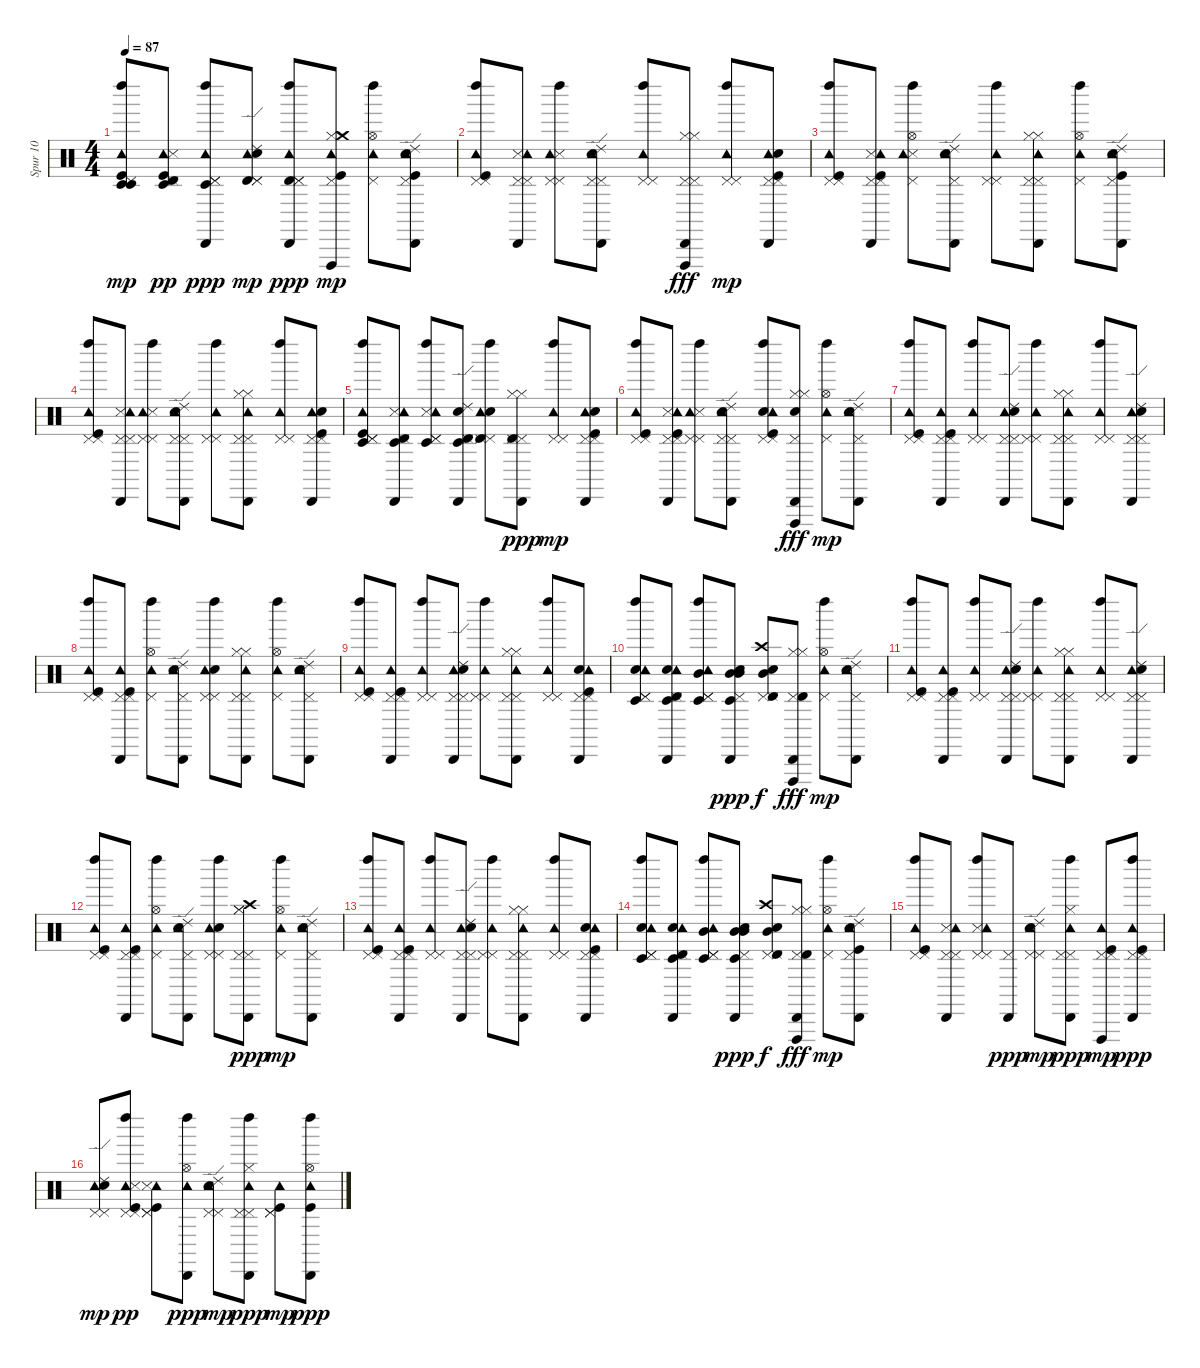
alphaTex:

\track ("Spur 10" "Spur 10") {instrument percussion}
\staff {score}
\articulation defaults
\ts (4 4)
\tempo 87
\clef neutral
\ks c
("Timbale low (hit)" "Kick (hit)" "Tambourine (hit)" "Left Maraca (hit)" "Pedal Hi-Hat (hit)" "Timbale low (hit)").8{dy mp} ("Timbale high (hit)" "Tambourine (hit)" "Pedal Hi-Hat (hit)" "Kick (hit)" "Timbale low (hit)" "Snare (side stick) 3").8{dy pp} ("Pedal Hi-Hat (hit)" "Left Maraca (hit)" "Tambourine (hit)" "Timbale low (hit)" "Pedal Hi-Hat (hit)" "Cabasa (hit)").8{dy ppp} ("Timbale high (hit)" "Ride (edge) 2" "Tambourine (hit)" "Pedal Hi-Hat (hit)" "Electric Snare (hit)" "Pedal Hi-Hat (hit)").8{dy mp} ("Timbale high (hit)" "Pedal Hi-Hat (hit)" "Left Maraca (hit)" "Tambourine (hit)" "Pedal Hi-Hat (hit)" "Cabasa (hit)").8{dy ppp} ("Hi-Hat (closed)" "Vibraslap (hit)" "Pedal Hi-Hat (hit)" "Tambourine (hit)" "Kick (hit)" "Crash medium (hit)").8{dy mp} ("Pedal Hi-Hat (hit)" "Left Maraca (hit)" "Hi-Hat (open)" "Tambourine (hit)").8 ("Kick (hit)" "Cabasa (hit)" "Ride (edge) 2" "Pedal Hi-Hat (hit)" "Tambourine (hit)" "Electric Snare (hit)").8 |
("Pedal Hi-Hat (hit)" "Pedal Hi-Hat (hit)" "Kick (hit)" "Tambourine (hit)" "Left Maraca (hit)").8 ("Cabasa (hit)" "Pedal Hi-Hat (hit)" "Snare (side stick) 3" "Pedal Hi-Hat (hit)" "Tambourine (hit)").8 ("Snare (side stick) 3" "Pedal Hi-Hat (hit)" "Left Maraca (hit)" "Pedal Hi-Hat (hit)" "Tambourine (hit)").8 ("Cabasa (hit)" "Pedal Hi-Hat (hit)" "Ride (edge) 2" "Pedal Hi-Hat (hit)" "Tambourine (hit)" "Electric Snare (hit)").8 ("Pedal Hi-Hat (hit)" "Left Maraca (hit)" "Pedal Hi-Hat (hit)" "Tambourine (hit)").8 ("Cabasa (hit)" "Pedal Hi-Hat (hit)" "Hi-Hat (closed)" "Hi-Hat (closed)" "Vibraslap (hit)" "Pedal Hi-Hat (hit)").8{dy fff} ("Pedal Hi-Hat (hit)" "Left Maraca (hit)" "Pedal Hi-Hat (hit)" "Tambourine (hit)").8{dy mp} ("Kick (hit)" "Cabasa (hit)" "Pedal Hi-Hat (hit)" "Pedal Hi-Hat (hit)" "Tambourine (hit)" "Electric Snare (hit)").8 |
("Pedal Hi-Hat (hit)" "Kick (hit)" "Tambourine (hit)" "Left Maraca (hit)" "Pedal Hi-Hat (hit)").8 ("Pedal Hi-Hat (hit)" "Snare (side stick) 3" "Cabasa (hit)" "Tambourine (hit)" "Pedal Hi-Hat (hit)" "Kick (hit)").8 ("Snare (side stick) 3" "Pedal Hi-Hat (hit)" "Left Maraca (hit)" "Tambourine (hit)" "Hi-Hat (open)").8 ("Cabasa (hit)" "Ride (edge) 2" "Tambourine (hit)" "Pedal Hi-Hat (hit)" "Electric Snare (hit)").8 ("Pedal Hi-Hat (hit)" "Pedal Hi-Hat (hit)" "Left Maraca (hit)" "Tambourine (hit)").8 ("Pedal Hi-Hat (hit)" "Cabasa (hit)" "Hi-Hat (closed)" "Hi-Hat (closed)" "Pedal Hi-Hat (hit)" "Tambourine (hit)").8 ("Pedal Hi-Hat (hit)" "Left Maraca (hit)" "Hi-Hat (open)" "Tambourine (hit)").8 ("Kick (hit)" "Cabasa (hit)" "Ride (edge) 2" "Pedal Hi-Hat (hit)" "Tambourine (hit)" "Electric Snare (hit)").8 |
("Pedal Hi-Hat (hit)" "Pedal Hi-Hat (hit)" "Kick (hit)" "Tambourine (hit)" "Left Maraca (hit)").8 ("Cabasa (hit)" "Pedal Hi-Hat (hit)" "Snare (side stick) 3" "Pedal Hi-Hat (hit)" "Tambourine (hit)").8 ("Snare (side stick) 3" "Pedal Hi-Hat (hit)" "Left Maraca (hit)" "Pedal Hi-Hat (hit)" "Tambourine (hit)").8 ("Cabasa (hit)" "Pedal Hi-Hat (hit)" "Ride (edge) 2" "Pedal Hi-Hat (hit)" "Tambourine (hit)" "Electric Snare (hit)").8 ("Pedal Hi-Hat (hit)" "Left Maraca (hit)" "Pedal Hi-Hat (hit)" "Tambourine (hit)").8 ("Cabasa (hit)" "Pedal Hi-Hat (hit)" "Hi-Hat (closed)" "Hi-Hat (closed)" "Pedal Hi-Hat (hit)" "Tambourine (hit)").8 ("Pedal Hi-Hat (hit)" "Left Maraca (hit)" "Pedal Hi-Hat (hit)" "Tambourine (hit)").8 ("Kick (hit)" "Cabasa (hit)" "Pedal Hi-Hat (hit)" "Pedal Hi-Hat (hit)" "Tambourine (hit)" "Electric Snare (hit)").8 |
("Pedal Hi-Hat (hit)" "Timbale low (hit)" "Kick (hit)" "Tambourine (hit)" "Left Maraca (hit)" "Pedal Hi-Hat (hit)").8 ("Timbale low (hit)" "Pedal Hi-Hat (hit)" "Snare (side stick) 3" "Cabasa (hit)" "Timbale high (hit)" "Tambourine (hit)").8 ("Timbale low (hit)" "Snare (side stick) 3" "Pedal Hi-Hat (hit)" "Pedal Hi-Hat (hit)" "Left Maraca (hit)" "Tambourine (hit)").8 ("Electric Snare (hit)" "Timbale low (hit)" "Pedal Hi-Hat (hit)" "Cabasa (hit)" "Timbale high (hit)" "Ride (edge) 2").8 ("Pedal Hi-Hat (hit)" "Electric Snare (hit)" "Timbale high (hit)" "Pedal Hi-Hat (hit)" "Left Maraca (hit)" "Tambourine (hit)").8 ("Pedal Hi-Hat (hit)" "Cabasa (hit)" "Timbale high (hit)" "Hi-Hat (closed)" "Hi-Hat (closed)" "Pedal Hi-Hat (hit)").8{dy ppp} ("Pedal Hi-Hat (hit)" "Left Maraca (hit)" "Pedal Hi-Hat (hit)" "Tambourine (hit)").8{dy mp} ("Kick (hit)" "Cabasa (hit)" "Pedal Hi-Hat (hit)" "Pedal Hi-Hat (hit)" "Tambourine (hit)" "Electric Snare (hit)").8 |
("Pedal Hi-Hat (hit)" "Kick (hit)" "Tambourine (hit)" "Left Maraca (hit)" "Pedal Hi-Hat (hit)").8 ("Pedal Hi-Hat (hit)" "Snare (side stick) 3" "Cabasa (hit)" "Tambourine (hit)" "Pedal Hi-Hat (hit)" "Kick (hit)").8 ("Snare (side stick) 3" "Pedal Hi-Hat (hit)" "Pedal Hi-Hat (hit)" "Left Maraca (hit)" "Tambourine (hit)").8 ("Electric Snare (hit)" "Pedal Hi-Hat (hit)" "Cabasa (hit)" "Ride (edge) 2" "Tambourine (hit)" "Pedal Hi-Hat (hit)").8 ("Pedal Hi-Hat (hit)" "Kick (hit)" "Electric Snare (hit)" "Pedal Hi-Hat (hit)" "Left Maraca (hit)" "Tambourine (hit)").8 ("Pedal Hi-Hat (hit)" "Cabasa (hit)" "Electric Snare (hit)" "Hi-Hat (closed)" "Hi-Hat (closed)" "Vibraslap (hit)").8{dy fff} ("Pedal Hi-Hat (hit)" "Left Maraca (hit)" "Hi-Hat (open)" "Tambourine (hit)").8{dy mp} ("Cabasa (hit)" "Ride (edge) 2" "Pedal Hi-Hat (hit)" "Tambourine (hit)" "Electric Snare (hit)").8 |
("Pedal Hi-Hat (hit)" "Pedal Hi-Hat (hit)" "Kick (hit)" "Tambourine (hit)" "Left Maraca (hit)").8 ("Cabasa (hit)" "Pedal Hi-Hat (hit)" "Kick (hit)" "Pedal Hi-Hat (hit)" "Tambourine (hit)").8 ("Pedal Hi-Hat (hit)" "Left Maraca (hit)" "Pedal Hi-Hat (hit)" "Tambourine (hit)").8 ("Cabasa (hit)" "Pedal Hi-Hat (hit)" "Ride (edge) 2" "Pedal Hi-Hat (hit)" "Tambourine (hit)" "Electric Snare (hit)").8 ("Pedal Hi-Hat (hit)" "Left Maraca (hit)" "Pedal Hi-Hat (hit)" "Tambourine (hit)").8 ("Cabasa (hit)" "Pedal Hi-Hat (hit)" "Hi-Hat (closed)" "Hi-Hat (closed)" "Pedal Hi-Hat (hit)" "Tambourine (hit)").8 ("Pedal Hi-Hat (hit)" "Left Maraca (hit)" "Pedal Hi-Hat (hit)" "Tambourine (hit)").8 ("Cabasa (hit)" "Pedal Hi-Hat (hit)" "Pedal Hi-Hat (hit)" "Tambourine (hit)" "Electric Snare (hit)" "Ride (edge) 2").8 |
("Pedal Hi-Hat (hit)" "Kick (hit)" "Tambourine (hit)" "Left Maraca (hit)" "Pedal Hi-Hat (hit)").8 ("Pedal Hi-Hat (hit)" "Cabasa (hit)" "Tambourine (hit)" "Pedal Hi-Hat (hit)" "Kick (hit)").8 ("Pedal Hi-Hat (hit)" "Left Maraca (hit)" "Tambourine (hit)" "Hi-Hat (open)").8 ("Cabasa (hit)" "Ride (edge) 2" "Tambourine (hit)" "Pedal Hi-Hat (hit)" "Electric Snare (hit)").8 ("Pedal Hi-Hat (hit)" "Electric Snare (hit)" "Pedal Hi-Hat (hit)" "Left Maraca (hit)" "Tambourine (hit)").8 ("Pedal Hi-Hat (hit)" "Cabasa (hit)" "Hi-Hat (closed)" "Hi-Hat (closed)" "Pedal Hi-Hat (hit)" "Tambourine (hit)").8 ("Pedal Hi-Hat (hit)" "Left Maraca (hit)" "Hi-Hat (open)" "Tambourine (hit)").8 ("Cabasa (hit)" "Ride (edge) 2" "Pedal Hi-Hat (hit)" "Tambourine (hit)" "Electric Snare (hit)").8 |
("Pedal Hi-Hat (hit)" "Pedal Hi-Hat (hit)" "Kick (hit)" "Tambourine (hit)" "Left Maraca (hit)").8 ("Cabasa (hit)" "Pedal Hi-Hat (hit)" "Kick (hit)" "Pedal Hi-Hat (hit)" "Tambourine (hit)").8 ("Pedal Hi-Hat (hit)" "Left Maraca (hit)" "Pedal Hi-Hat (hit)" "Tambourine (hit)").8 ("Cabasa (hit)" "Pedal Hi-Hat (hit)" "Ride (edge) 2" "Pedal Hi-Hat (hit)" "Tambourine (hit)" "Electric Snare (hit)").8 ("Pedal Hi-Hat (hit)" "Left Maraca (hit)" "Pedal Hi-Hat (hit)" "Tambourine (hit)").8 ("Cabasa (hit)" "Pedal Hi-Hat (hit)" "Hi-Hat (closed)" "Hi-Hat (closed)" "Pedal Hi-Hat (hit)" "Tambourine (hit)").8 ("Pedal Hi-Hat (hit)" "Left Maraca (hit)" "Pedal Hi-Hat (hit)" "Tambourine (hit)").8 ("Electric Snare (hit)" "Kick (hit)" "Cabasa (hit)" "Pedal Hi-Hat (hit)" "Pedal Hi-Hat (hit)" "Tambourine (hit)").8 |
("Electric Snare (hit)" "Pedal Hi-Hat (hit)" "Timbale low (hit)" "Tambourine (hit)" "Left Maraca (hit)" "Pedal Hi-Hat (hit)").8 ("Timbale low (hit)" "Pedal Hi-Hat (hit)" "Cabasa (hit)" "Electric Snare (hit)" "Timbale high (hit)" "Tambourine (hit)").8 ("Timbale low (hit)" "Pedal Hi-Hat (hit)" "Mid Tom (hit)" "Pedal Hi-Hat (hit)" "Left Maraca (hit)" "Tambourine (hit)").8 ("Mid Tom (hit)" "Electric Snare (hit)" "Timbale low (hit)" "Pedal Hi-Hat (hit)" "Cabasa (hit)" "Mid Tom (hit)").8{dy ppp} ("Pedal Hi-Hat (hit)" "Crash high (hit)" "Mid Tom (hit)" "Electric Snare (hit)" "Timbale high (hit)" "Pedal Hi-Hat (hit)").8{dy f} ("Pedal Hi-Hat (hit)" "Cabasa (hit)" "Timbale high (hit)" "Hi-Hat (closed)" "Hi-Hat (closed)" "Vibraslap (hit)").8{dy fff} ("Pedal Hi-Hat (hit)" "Left Maraca (hit)" "Hi-Hat (open)" "Tambourine (hit)").8{dy mp} ("Cabasa (hit)" "Ride (edge) 2" "Pedal Hi-Hat (hit)" "Tambourine (hit)" "Electric Snare (hit)").8 |
("Pedal Hi-Hat (hit)" "Pedal Hi-Hat (hit)" "Kick (hit)" "Tambourine (hit)" "Left Maraca (hit)").8 ("Cabasa (hit)" "Pedal Hi-Hat (hit)" "Kick (hit)" "Pedal Hi-Hat (hit)" "Tambourine (hit)").8 ("Pedal Hi-Hat (hit)" "Left Maraca (hit)" "Pedal Hi-Hat (hit)" "Tambourine (hit)").8 ("Cabasa (hit)" "Pedal Hi-Hat (hit)" "Ride (edge) 2" "Pedal Hi-Hat (hit)" "Tambourine (hit)" "Electric Snare (hit)").8 ("Pedal Hi-Hat (hit)" "Left Maraca (hit)" "Pedal Hi-Hat (hit)" "Tambourine (hit)").8 ("Cabasa (hit)" "Pedal Hi-Hat (hit)" "Hi-Hat (closed)" "Hi-Hat (closed)" "Pedal Hi-Hat (hit)" "Tambourine (hit)").8 ("Pedal Hi-Hat (hit)" "Left Maraca (hit)" "Pedal Hi-Hat (hit)" "Tambourine (hit)").8 ("Cabasa (hit)" "Pedal Hi-Hat (hit)" "Pedal Hi-Hat (hit)" "Tambourine (hit)" "Electric Snare (hit)" "Ride (edge) 2").8 |
("Pedal Hi-Hat (hit)" "Kick (hit)" "Tambourine (hit)" "Left Maraca (hit)" "Pedal Hi-Hat (hit)").8 ("Pedal Hi-Hat (hit)" "Cabasa (hit)" "Tambourine (hit)" "Pedal Hi-Hat (hit)" "Kick (hit)").8 ("Pedal Hi-Hat (hit)" "Left Maraca (hit)" "Tambourine (hit)" "Hi-Hat (open)").8 ("Cabasa (hit)" "Ride (edge) 2" "Tambourine (hit)" "Pedal Hi-Hat (hit)" "Electric Snare (hit)").8 ("Pedal Hi-Hat (hit)" "Electric Snare (hit)" "Pedal Hi-Hat (hit)" "Left Maraca (hit)" "Tambourine (hit)").8 ("Pedal Hi-Hat (hit)" "Cabasa (hit)" "Hi-Hat (closed)" "Hi-Hat (closed)" "Crash high (hit)" "Pedal Hi-Hat (hit)").8{dy ppp} ("Pedal Hi-Hat (hit)" "Left Maraca (hit)" "Hi-Hat (open)" "Tambourine (hit)").8{dy mp} ("Cabasa (hit)" "Ride (edge) 2" "Pedal Hi-Hat (hit)" "Tambourine (hit)" "Electric Snare (hit)").8 |
("Pedal Hi-Hat (hit)" "Pedal Hi-Hat (hit)" "Kick (hit)" "Tambourine (hit)" "Left Maraca (hit)").8 ("Cabasa (hit)" "Pedal Hi-Hat (hit)" "Kick (hit)" "Pedal Hi-Hat (hit)" "Tambourine (hit)").8 ("Pedal Hi-Hat (hit)" "Left Maraca (hit)" "Pedal Hi-Hat (hit)" "Tambourine (hit)").8 ("Cabasa (hit)" "Pedal Hi-Hat (hit)" "Ride (edge) 2" "Pedal Hi-Hat (hit)" "Tambourine (hit)" "Electric Snare (hit)").8 ("Pedal Hi-Hat (hit)" "Left Maraca (hit)" "Pedal Hi-Hat (hit)" "Tambourine (hit)").8 ("Cabasa (hit)" "Pedal Hi-Hat (hit)" "Hi-Hat (closed)" "Hi-Hat (closed)" "Pedal Hi-Hat (hit)" "Tambourine (hit)").8 ("Pedal Hi-Hat (hit)" "Left Maraca (hit)" "Pedal Hi-Hat (hit)" "Tambourine (hit)").8 ("Electric Snare (hit)" "Kick (hit)" "Cabasa (hit)" "Pedal Hi-Hat (hit)" "Pedal Hi-Hat (hit)" "Tambourine (hit)").8 |
("Electric Snare (hit)" "Pedal Hi-Hat (hit)" "Timbale low (hit)" "Tambourine (hit)" "Left Maraca (hit)" "Pedal Hi-Hat (hit)").8 ("Timbale low (hit)" "Pedal Hi-Hat (hit)" "Cabasa (hit)" "Electric Snare (hit)" "Timbale high (hit)" "Tambourine (hit)").8 ("Timbale low (hit)" "Pedal Hi-Hat (hit)" "Mid Tom (hit)" "Pedal Hi-Hat (hit)" "Left Maraca (hit)" "Tambourine (hit)").8 ("Mid Tom (hit)" "Electric Snare (hit)" "Timbale low (hit)" "Pedal Hi-Hat (hit)" "Cabasa (hit)" "Mid Tom (hit)").8{dy ppp} ("Pedal Hi-Hat (hit)" "Crash high (hit)" "Mid Tom (hit)" "Electric Snare (hit)" "Timbale high (hit)" "Pedal Hi-Hat (hit)").8{dy f} ("Pedal Hi-Hat (hit)" "Cabasa (hit)" "Timbale high (hit)" "Hi-Hat (closed)" "Hi-Hat (closed)" "Vibraslap (hit)").8{dy fff} ("Pedal Hi-Hat (hit)" "Left Maraca (hit)" "Hi-Hat (open)" "Tambourine (hit)").8{dy mp} ("Kick (hit)" "Cabasa (hit)" "Ride (edge) 2" "Pedal Hi-Hat (hit)" "Tambourine (hit)" "Electric Snare (hit)").8 |
("Pedal Hi-Hat (hit)" "Pedal Hi-Hat (hit)" "Kick (hit)" "Tambourine (hit)" "Left Maraca (hit)").8 ("Cabasa (hit)" "Pedal Hi-Hat (hit)" "Snare (side stick) 3" "Pedal Hi-Hat (hit)" "Tambourine (hit)").8 ("Snare (side stick) 3" "Pedal Hi-Hat (hit)" "Left Maraca (hit)" "Pedal Hi-Hat (hit)" "Tambourine (hit)").8 ("Cabasa (hit)" "Pedal Hi-Hat (hit)").8{dy ppp} ("Ride (edge) 2" "Pedal Hi-Hat (hit)" "Tambourine (hit)" "Electric Snare (hit)" "Pedal Hi-Hat (hit)").8{dy mp} ("Left Maraca (hit)" "Pedal Hi-Hat (hit)" "Tambourine (hit)" "Cabasa (hit)" "Pedal Hi-Hat (hit)" "Hi-Hat (closed)").8{dy ppp} ("Vibraslap (hit)" "Pedal Hi-Hat (hit)" "Tambourine (hit)" "Kick (hit)" "Pedal Hi-Hat (hit)").8{dy mp} ("Left Maraca (hit)" "Pedal Hi-Hat (hit)" "Tambourine (hit)" "Kick (hit)" "Cabasa (hit)" "Pedal Hi-Hat (hit)").8{dy ppp} |
("Pedal Hi-Hat (hit)" "Tambourine (hit)" "Electric Snare (hit)" "Ride (edge) 2" "Pedal Hi-Hat (hit)").8{dy mp} ("Kick (hit)" "Tambourine (hit)" "Left Maraca (hit)" "Pedal Hi-Hat (hit)" "Pedal Hi-Hat (hit)" "Snare (side stick) 3").8{dy pp} ("Tambourine (hit)" "Pedal Hi-Hat (hit)" "Kick (hit)" "Snare (side stick) 3" "Pedal Hi-Hat (hit)").8 ("Left Maraca (hit)" "Tambourine (hit)" "Hi-Hat (open)" "Cabasa (hit)").8{dy ppp} ("Ride (edge) 2" "Tambourine (hit)" "Pedal Hi-Hat (hit)" "Electric Snare (hit)" "Pedal Hi-Hat (hit)").8{dy mp} ("Pedal Hi-Hat (hit)" "Left Maraca (hit)" "Tambourine (hit)" "Pedal Hi-Hat (hit)" "Cabasa (hit)" "Hi-Hat (closed)").8{dy ppp} ("Pedal Hi-Hat (hit)" "Tambourine (hit)" "Kick (hit)" "Pedal Hi-Hat (hit)").8{dy mp} ("Left Maraca (hit)" "Hi-Hat (open)" "Tambourine (hit)" "Kick (hit)" "Cabasa (hit)").8{dy ppp}
